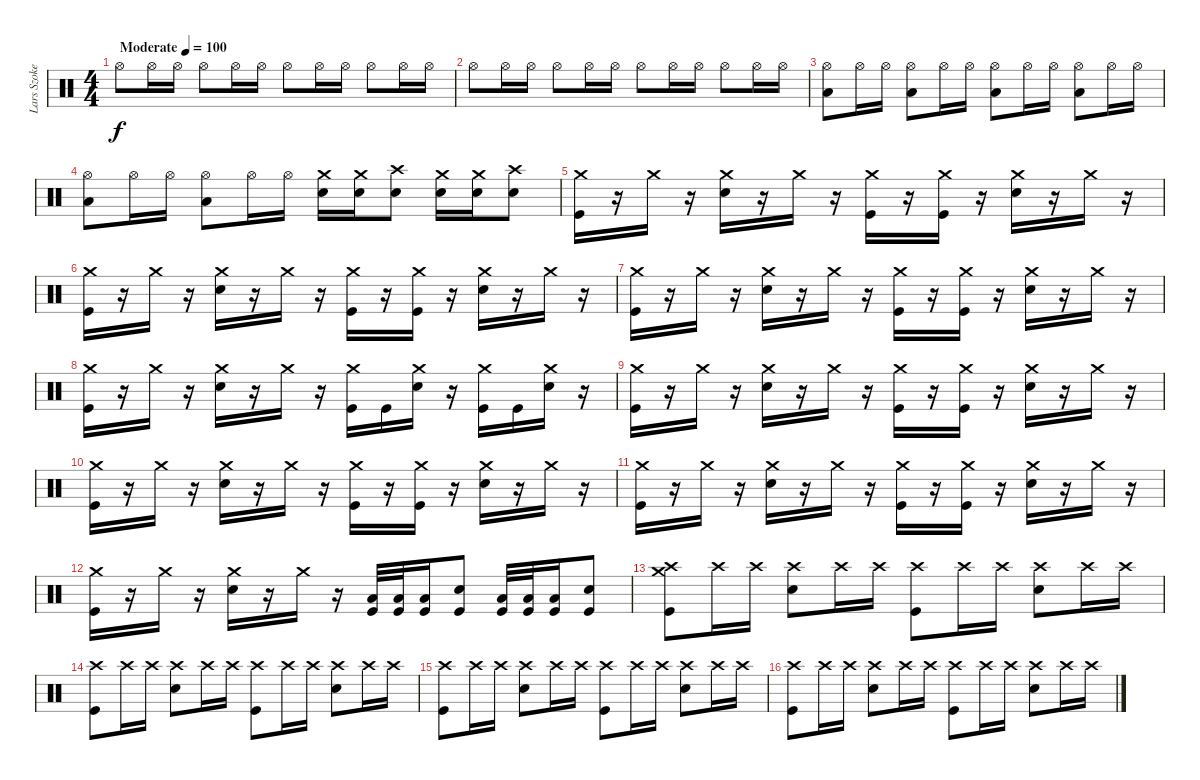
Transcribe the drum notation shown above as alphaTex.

\track ("Lars Szoke" "Lars Szoke") {instrument percussion}
\staff {score}
\articulation defaults
\ts (4 4)
\tempo (100 "Moderate")
\clef neutral
\ks c "Hi-Hat (open)".8{dy f} "Hi-Hat (open)".16 "Hi-Hat (open)".16 "Hi-Hat (open)".8 "Hi-Hat (open)".16 "Hi-Hat (open)".16 "Hi-Hat (open)".8 "Hi-Hat (open)".16 "Hi-Hat (open)".16 "Hi-Hat (open)".8 "Hi-Hat (open)".16 "Hi-Hat (open)".16
|
"Hi-Hat (open)".8 "Hi-Hat (open)".16 "Hi-Hat (open)".16 "Hi-Hat (open)".8 "Hi-Hat (open)".16 "Hi-Hat (open)".16 "Hi-Hat (open)".8 "Hi-Hat (open)".16 "Hi-Hat (open)".16 "Hi-Hat (open)".8 "Hi-Hat (open)".16 "Hi-Hat (open)".16 |
("Hi-Hat (open)" "Low Tom (hit)").8 "Hi-Hat (open)".16 "Hi-Hat (open)".16 ("Hi-Hat (open)" "Low Tom (hit)").8 "Hi-Hat (open)".16 "Hi-Hat (open)".16 ("Hi-Hat (open)" "Low Tom (hit)").8 "Hi-Hat (open)".16 "Hi-Hat (open)".16 ("Hi-Hat (open)" "Low Tom (hit)").8 "Hi-Hat (open)".16 "Hi-Hat (open)".16 |
("Hi-Hat (open)" "Low Tom (hit)").8 "Hi-Hat (open)".16 "Hi-Hat (open)".16 ("Hi-Hat (open)" "Low Tom (hit)").8 "Hi-Hat (open)".16 "Hi-Hat (open)".16 ("Crash medium (hit)" "Electric Snare (hit)").16 ("Crash medium (hit)" "Electric Snare (hit)").16 ("Crash high (hit)" "Electric Snare (hit)").8 ("Crash medium (hit)" "Electric Snare (hit)").16 ("Crash medium (hit)" "Electric Snare (hit)").16 ("Crash high (hit)" "Electric Snare (hit)").8 |
("Crash medium (hit)" "Kick (hit)").16 r.16 "Crash medium (hit)".16 r.16 ("Crash medium (hit)" "Electric Snare (hit)").16 r.16 "Crash medium (hit)".16 r.16 ("Crash medium (hit)" "Kick (hit)").16 r.16 ("Crash medium (hit)" "Kick (hit)").16 r.16 ("Crash medium (hit)" "Electric Snare (hit)").16 r.16 "Crash medium (hit)".16 r.16 |
("Crash medium (hit)" "Kick (hit)").16 r.16 "Crash medium (hit)".16 r.16 ("Crash medium (hit)" "Electric Snare (hit)").16 r.16 "Crash medium (hit)".16 r.16 ("Crash medium (hit)" "Kick (hit)").16 r.16 ("Crash medium (hit)" "Kick (hit)").16 r.16 ("Crash medium (hit)" "Electric Snare (hit)").16 r.16 "Crash medium (hit)".16 r.16 |
("Crash medium (hit)" "Kick (hit)").16 r.16 "Crash medium (hit)".16 r.16 ("Crash medium (hit)" "Electric Snare (hit)").16 r.16 "Crash medium (hit)".16 r.16 ("Crash medium (hit)" "Kick (hit)").16 r.16 ("Crash medium (hit)" "Kick (hit)").16 r.16 ("Crash medium (hit)" "Electric Snare (hit)").16 r.16 "Crash medium (hit)".16 r.16 |
("Crash medium (hit)" "Kick (hit)").16 r.16 "Crash medium (hit)".16 r.16 ("Crash medium (hit)" "Electric Snare (hit)").16 r.16 "Crash medium (hit)".16 r.16 ("Crash medium (hit)" "Kick (hit)").16 "Kick (hit)".16 ("Crash medium (hit)" "Electric Snare (hit)").16 r.16 ("Crash medium (hit)" "Kick (hit)").16 "Kick (hit)".16 ("Crash medium (hit)" "Electric Snare (hit)").16 r.16 |
("Crash medium (hit)" "Kick (hit)").16 r.16 "Crash medium (hit)".16 r.16 ("Crash medium (hit)" "Electric Snare (hit)").16 r.16 "Crash medium (hit)".16 r.16 ("Crash medium (hit)" "Kick (hit)").16 r.16 ("Crash medium (hit)" "Kick (hit)").16 r.16 ("Crash medium (hit)" "Electric Snare (hit)").16 r.16 "Crash medium (hit)".16 r.16 |
("Crash medium (hit)" "Kick (hit)").16 r.16 "Crash medium (hit)".16 r.16 ("Crash medium (hit)" "Electric Snare (hit)").16 r.16 "Crash medium (hit)".16 r.16 ("Crash medium (hit)" "Kick (hit)").16 r.16 ("Crash medium (hit)" "Kick (hit)").16 r.16 ("Crash medium (hit)" "Electric Snare (hit)").16 r.16 "Crash medium (hit)".16 r.16 |
("Crash medium (hit)" "Kick (hit)").16 r.16 "Crash medium (hit)".16 r.16 ("Crash medium (hit)" "Electric Snare (hit)").16 r.16 "Crash medium (hit)".16 r.16 ("Crash medium (hit)" "Kick (hit)").16 r.16 ("Crash medium (hit)" "Kick (hit)").16 r.16 ("Crash medium (hit)" "Electric Snare (hit)").16 r.16 "Crash medium (hit)".16 r.16 |
("Crash medium (hit)" "Kick (hit)").16 r.16 "Crash medium (hit)".16 r.16 ("Crash medium (hit)" "Electric Snare (hit)").16 r.16 "Crash medium (hit)".16 r.16 ("Low Tom (hit)" "Kick (hit)").32 ("Low Tom (hit)" "Kick (hit)").32 ("Low Tom (hit)" "Kick (hit)").16 ("Electric Snare (hit)" "Kick (hit)").8 ("Low Tom (hit)" "Kick (hit)").32 ("Low Tom (hit)" "Kick (hit)").32 ("Low Tom (hit)" "Kick (hit)").16 ("Electric Snare (hit)" "Kick (hit)").8 |
("Crash high (hit)" "Crash medium (hit)" "Kick (hit)").8 "Crash high (hit)".16 "Crash high (hit)".16 ("Crash high (hit)" "Electric Snare (hit)").8 "Crash high (hit)".16 "Crash high (hit)".16 ("Crash high (hit)" "Kick (hit)").8 "Crash high (hit)".16 "Crash high (hit)".16 ("Crash high (hit)" "Electric Snare (hit)").8 "Crash high (hit)".16 "Crash high (hit)".16 |
("Crash high (hit)" "Kick (hit)").8 "Crash high (hit)".16 "Crash high (hit)".16 ("Crash high (hit)" "Electric Snare (hit)").8 "Crash high (hit)".16 "Crash high (hit)".16 ("Crash high (hit)" "Kick (hit)").8 "Crash high (hit)".16 "Crash high (hit)".16 ("Crash high (hit)" "Electric Snare (hit)").8 "Crash high (hit)".16 "Crash high (hit)".16 |
("Crash high (hit)" "Kick (hit)").8 "Crash high (hit)".16 "Crash high (hit)".16 ("Crash high (hit)" "Electric Snare (hit)").8 "Crash high (hit)".16 "Crash high (hit)".16 ("Crash high (hit)" "Kick (hit)").8 "Crash high (hit)".16 "Crash high (hit)".16 ("Crash high (hit)" "Electric Snare (hit)").8 "Crash high (hit)".16 "Crash high (hit)".16 |
("Crash high (hit)" "Kick (hit)").8 "Crash high (hit)".16 "Crash high (hit)".16 ("Crash high (hit)" "Electric Snare (hit)").8 "Crash high (hit)".16 "Crash high (hit)".16 ("Crash high (hit)" "Kick (hit)").8 "Crash high (hit)".16 "Crash high (hit)".16 ("Crash high (hit)" "Electric Snare (hit)").8 "Crash high (hit)".16 "Crash high (hit)".16
